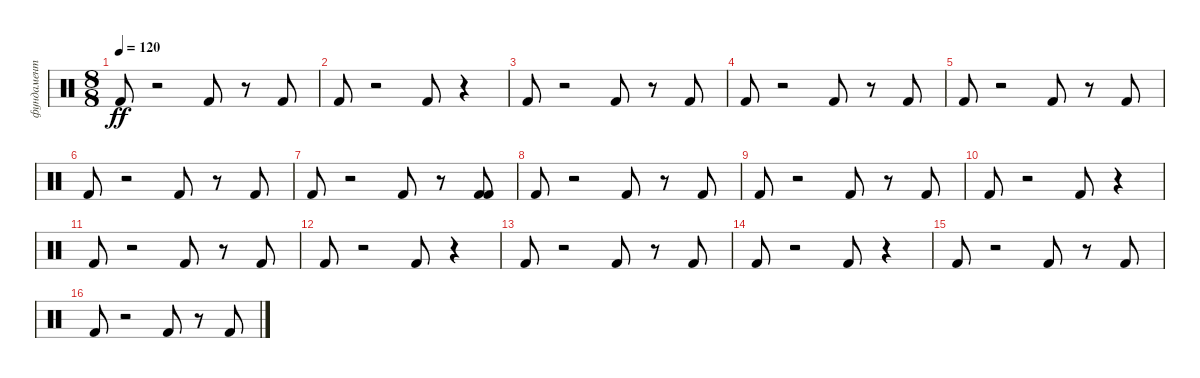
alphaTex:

\track ("фундамент" "фундамент") {instrument percussion}
\staff {score}
\articulation defaults
\ts (8 8)
\tempo 120
\clef neutral
\ks c "Kick (hit) 2".8{dy ff}
r.2 "Kick (hit) 2".8 r.8 "Kick (hit) 2".8 |
"Kick (hit) 2".8 r.2 "Kick (hit) 2".8 r.4 |
"Kick (hit) 2".8 r.2 "Kick (hit) 2".8 r.8 "Kick (hit) 2".8 |
"Kick (hit) 2".8 r.2 "Kick (hit) 2".8 r.8 "Kick (hit) 2".8 |
"Kick (hit) 2".8 r.2 "Kick (hit) 2".8 r.8 "Kick (hit) 2".8 |
"Kick (hit) 2".8 r.2 "Kick (hit) 2".8 r.8 "Kick (hit) 2".8 |
"Kick (hit) 2".8 r.2 "Kick (hit) 2".8 r.8 ("Kick (hit) 2" "Kick (hit) 2").8 |
"Kick (hit) 2".8 r.2 "Kick (hit) 2".8 r.8 "Kick (hit) 2".8 |
"Kick (hit) 2".8 r.2 "Kick (hit) 2".8 r.8 "Kick (hit) 2".8{volume 16} |
"Kick (hit) 2".8 r.2 "Kick (hit) 2".8{volume 15} r.4 |
"Kick (hit) 2".8{volume 15} r.2 "Kick (hit) 2".8{volume 15} r.8 "Kick (hit) 2".8{volume 14} |
"Kick (hit) 2".8 r.2 "Kick (hit) 2".8{volume 14} r.4 |
"Kick (hit) 2".8{volume 14} r.2 "Kick (hit) 2".8{volume 13} r.8 "Kick (hit) 2".8{volume 13} |
"Kick (hit) 2".8 r.2 "Kick (hit) 2".8{volume 13} r.4 |
"Kick (hit) 2".8{volume 12} r.2 "Kick (hit) 2".8{volume 12} r.8 "Kick (hit) 2".8{volume 11} |
"Kick (hit) 2".8{volume 11} r.2 "Kick (hit) 2".8{volume 10} r.8 "Kick (hit) 2".8{volume 10}
